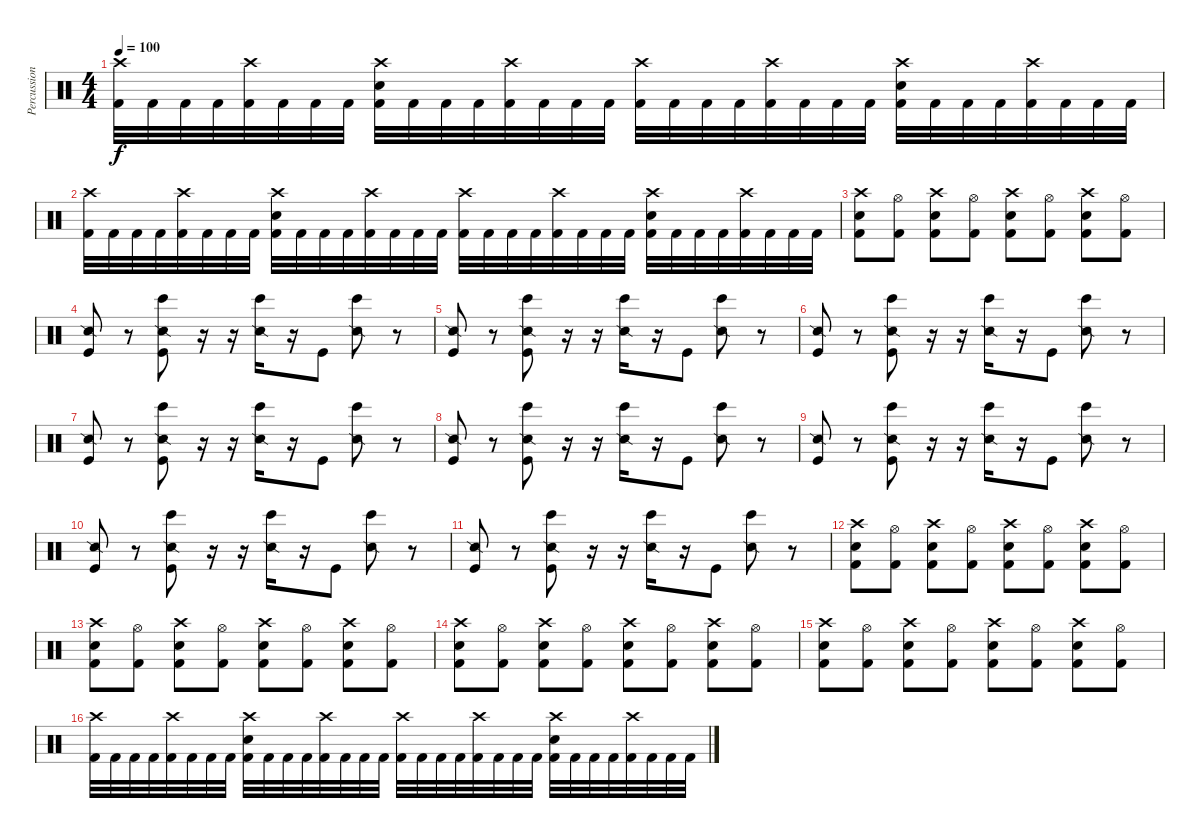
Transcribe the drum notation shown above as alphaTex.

\track ("Percussion" "Percussion") {instrument percussion}
\staff {score}
\articulation defaults
\ts (4 4)
\tempo 100
\clef neutral
\ks c
("Crash high (hit)" "Kick (hit) 2").32{dy f} "Kick (hit) 2".32 "Kick (hit) 2".32 "Kick (hit) 2".32 ("Crash high (hit)" "Kick (hit) 2").32 "Kick (hit) 2".32 "Kick (hit) 2".32 "Kick (hit) 2".32 ("Electric Snare (hit)" "Crash high (hit)" "Kick (hit) 2").32 "Kick (hit) 2".32 "Kick (hit) 2".32 "Kick (hit) 2".32 ("Crash high (hit)" "Kick (hit) 2").32 "Kick (hit) 2".32 "Kick (hit) 2".32 "Kick (hit) 2".32 ("Crash high (hit)" "Kick (hit) 2").32 "Kick (hit) 2".32 "Kick (hit) 2".32 "Kick (hit) 2".32 ("Crash high (hit)" "Kick (hit) 2").32 "Kick (hit) 2".32 "Kick (hit) 2".32 "Kick (hit) 2".32 ("Electric Snare (hit)" "Crash high (hit)" "Kick (hit) 2").32 "Kick (hit) 2".32 "Kick (hit) 2".32 "Kick (hit) 2".32 ("Crash high (hit)" "Kick (hit) 2").32 "Kick (hit) 2".32 "Kick (hit) 2".32 "Kick (hit) 2".32 |
("Crash high (hit)" "Kick (hit) 2").32 "Kick (hit) 2".32 "Kick (hit) 2".32 "Kick (hit) 2".32 ("Crash high (hit)" "Kick (hit) 2").32 "Kick (hit) 2".32 "Kick (hit) 2".32 "Kick (hit) 2".32 ("Electric Snare (hit)" "Crash high (hit)" "Kick (hit) 2").32 "Kick (hit) 2".32 "Kick (hit) 2".32 "Kick (hit) 2".32 ("Crash high (hit)" "Kick (hit) 2").32 "Kick (hit) 2".32 "Kick (hit) 2".32 "Kick (hit) 2".32 ("Crash high (hit)" "Kick (hit) 2").32 "Kick (hit) 2".32 "Kick (hit) 2".32 "Kick (hit) 2".32 ("Crash high (hit)" "Kick (hit) 2").32 "Kick (hit) 2".32 "Kick (hit) 2".32 "Kick (hit) 2".32 ("Electric Snare (hit)" "Crash high (hit)" "Kick (hit) 2").32 "Kick (hit) 2".32 "Kick (hit) 2".32 "Kick (hit) 2".32 ("Crash high (hit)" "Kick (hit) 2").32 "Kick (hit) 2".32 "Kick (hit) 2".32 "Kick (hit) 2".32 |
("Crash high (hit)" "Electric Snare (hit)" "Kick (hit) 2").8 ("Hi-Hat (open)" "Kick (hit) 2").8 ("Crash high (hit)" "Electric Snare (hit)" "Kick (hit) 2").8 ("Hi-Hat (open)" "Kick (hit) 2").8 ("Crash high (hit)" "Electric Snare (hit)" "Kick (hit) 2").8 ("Hi-Hat (open)" "Kick (hit) 2").8 ("Crash high (hit)" "Electric Snare (hit)" "Kick (hit) 2").8 ("Hi-Hat (open)" "Kick (hit) 2").8 |
("Snare (side stick) 2" "Kick (hit)").8 r.8 ("Snare (side stick) 2" "Bongo High (hit)" "Kick (hit)").8 r.16 r.16 ("Snare (side stick) 2" "Bongo High (hit)").16 r.16 "Kick (hit)".8 ("Snare (side stick) 2" "Bongo High (hit)").8 r.8 |
("Snare (side stick) 2" "Kick (hit)").8 r.8 ("Snare (side stick) 2" "Bongo High (hit)" "Kick (hit)").8 r.16 r.16 ("Snare (side stick) 2" "Bongo High (hit)").16 r.16 "Kick (hit)".8 ("Snare (side stick) 2" "Bongo High (hit)").8 r.8 |
("Snare (side stick) 2" "Kick (hit)").8 r.8 ("Snare (side stick) 2" "Bongo High (hit)" "Kick (hit)").8 r.16 r.16 ("Snare (side stick) 2" "Bongo High (hit)").16 r.16 "Kick (hit)".8 ("Snare (side stick) 2" "Bongo High (hit)").8 r.8 |
("Snare (side stick) 2" "Kick (hit)").8 r.8 ("Snare (side stick) 2" "Bongo High (hit)" "Kick (hit)").8 r.16 r.16 ("Snare (side stick) 2" "Bongo High (hit)").16 r.16 "Kick (hit)".8 ("Snare (side stick) 2" "Bongo High (hit)").8 r.8 |
("Snare (side stick) 2" "Kick (hit)").8 r.8 ("Snare (side stick) 2" "Bongo High (hit)" "Kick (hit)").8 r.16 r.16 ("Snare (side stick) 2" "Bongo High (hit)").16 r.16 "Kick (hit)".8 ("Snare (side stick) 2" "Bongo High (hit)").8 r.8 |
("Snare (side stick) 2" "Kick (hit)").8 r.8 ("Snare (side stick) 2" "Bongo High (hit)" "Kick (hit)").8 r.16 r.16 ("Snare (side stick) 2" "Bongo High (hit)").16 r.16 "Kick (hit)".8 ("Snare (side stick) 2" "Bongo High (hit)").8 r.8 |
("Snare (side stick) 2" "Kick (hit)").8 r.8 ("Snare (side stick) 2" "Bongo High (hit)" "Kick (hit)").8 r.16 r.16 ("Snare (side stick) 2" "Bongo High (hit)").16 r.16 "Kick (hit)".8 ("Snare (side stick) 2" "Bongo High (hit)").8 r.8 |
("Snare (side stick) 2" "Kick (hit)").8 r.8 ("Snare (side stick) 2" "Bongo High (hit)" "Kick (hit)").8 r.16 r.16 ("Snare (side stick) 2" "Bongo High (hit)").16 r.16 "Kick (hit)".8 ("Snare (side stick) 2" "Bongo High (hit)").8 r.8 |
("Crash high (hit)" "Electric Snare (hit)" "Kick (hit) 2").8 ("Hi-Hat (open)" "Kick (hit) 2").8 ("Crash high (hit)" "Electric Snare (hit)" "Kick (hit) 2").8 ("Hi-Hat (open)" "Kick (hit) 2").8 ("Crash high (hit)" "Electric Snare (hit)" "Kick (hit) 2").8 ("Hi-Hat (open)" "Kick (hit) 2").8 ("Crash high (hit)" "Electric Snare (hit)" "Kick (hit) 2").8 ("Hi-Hat (open)" "Kick (hit) 2").8 |
("Crash high (hit)" "Electric Snare (hit)" "Kick (hit) 2").8 ("Hi-Hat (open)" "Kick (hit) 2").8 ("Crash high (hit)" "Electric Snare (hit)" "Kick (hit) 2").8 ("Hi-Hat (open)" "Kick (hit) 2").8 ("Crash high (hit)" "Electric Snare (hit)" "Kick (hit) 2").8 ("Hi-Hat (open)" "Kick (hit) 2").8 ("Crash high (hit)" "Electric Snare (hit)" "Kick (hit) 2").8 ("Hi-Hat (open)" "Kick (hit) 2").8 |
("Crash high (hit)" "Electric Snare (hit)" "Kick (hit) 2").8 ("Hi-Hat (open)" "Kick (hit) 2").8 ("Crash high (hit)" "Electric Snare (hit)" "Kick (hit) 2").8 ("Hi-Hat (open)" "Kick (hit) 2").8 ("Crash high (hit)" "Electric Snare (hit)" "Kick (hit) 2").8 ("Hi-Hat (open)" "Kick (hit) 2").8 ("Crash high (hit)" "Electric Snare (hit)" "Kick (hit) 2").8 ("Hi-Hat (open)" "Kick (hit) 2").8 |
("Crash high (hit)" "Electric Snare (hit)" "Kick (hit) 2").8 ("Hi-Hat (open)" "Kick (hit) 2").8 ("Crash high (hit)" "Electric Snare (hit)" "Kick (hit) 2").8 ("Hi-Hat (open)" "Kick (hit) 2").8 ("Crash high (hit)" "Electric Snare (hit)" "Kick (hit) 2").8 ("Hi-Hat (open)" "Kick (hit) 2").8 ("Crash high (hit)" "Electric Snare (hit)" "Kick (hit) 2").8 ("Hi-Hat (open)" "Kick (hit) 2").8 |
("Crash high (hit)" "Kick (hit) 2").32 "Kick (hit) 2".32 "Kick (hit) 2".32 "Kick (hit) 2".32 ("Crash high (hit)" "Kick (hit) 2").32 "Kick (hit) 2".32 "Kick (hit) 2".32 "Kick (hit) 2".32 ("Electric Snare (hit)" "Crash high (hit)" "Kick (hit) 2").32 "Kick (hit) 2".32 "Kick (hit) 2".32 "Kick (hit) 2".32 ("Crash high (hit)" "Kick (hit) 2").32 "Kick (hit) 2".32 "Kick (hit) 2".32 "Kick (hit) 2".32 ("Crash high (hit)" "Kick (hit) 2").32 "Kick (hit) 2".32 "Kick (hit) 2".32 "Kick (hit) 2".32 ("Crash high (hit)" "Kick (hit) 2").32 "Kick (hit) 2".32 "Kick (hit) 2".32 "Kick (hit) 2".32 ("Electric Snare (hit)" "Crash high (hit)" "Kick (hit) 2").32 "Kick (hit) 2".32 "Kick (hit) 2".32 "Kick (hit) 2".32 ("Crash high (hit)" "Kick (hit) 2").32 "Kick (hit) 2".32 "Kick (hit) 2".32 "Kick (hit) 2".32
